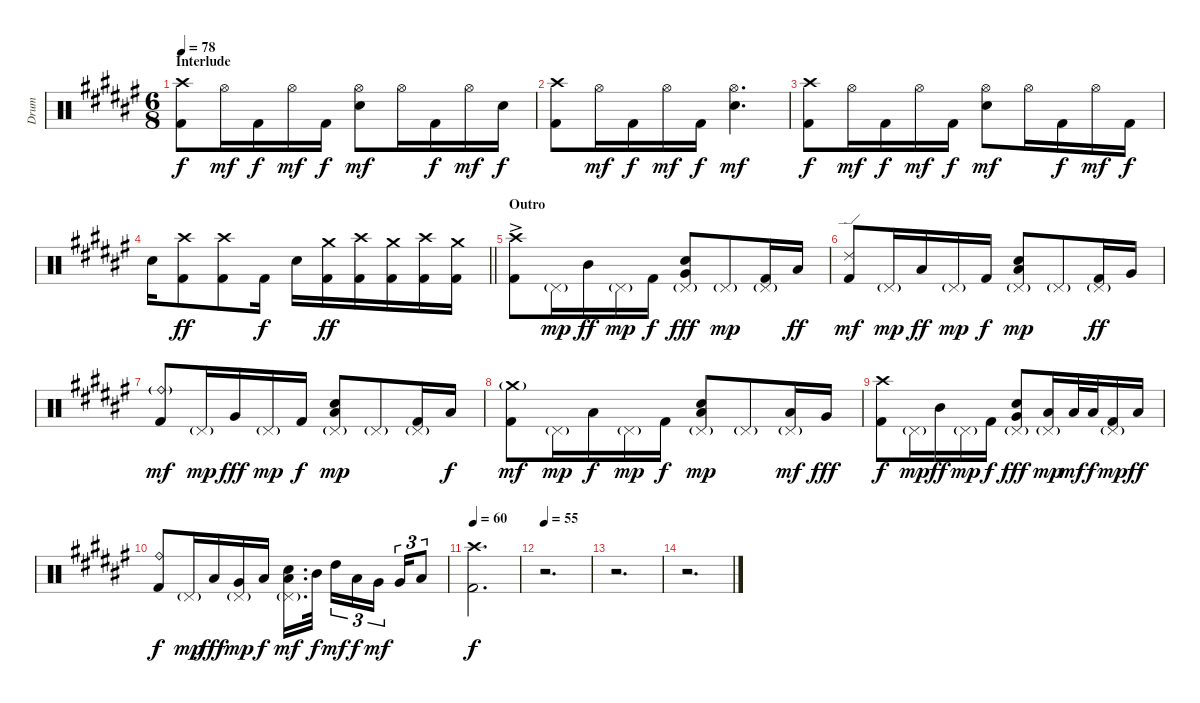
\track ("Drum" "Drum") {instrument percussion}
\staff {score}
\articulation defaults
\ts (6 8)
\section ("" "Interlude")
\tempo 78
\clef neutral
\ks d#minor
("Crash high (hit)" "Kick (hit) 2").8{dy f} "Hi-Hat (open)".16{dy mf} "Kick (hit) 2".16{dy f} "Hi-Hat (open)".16{dy mf} "Kick (hit) 2".16{dy f} ("Hi-Hat (open)" "Electric Snare (hit)").8{dy mf} "Hi-Hat (open)".16 "Kick (hit) 2".16{dy f} "Hi-Hat (open)".16{dy mf} "Electric Snare (hit)".16{dy f} |
("Crash high (hit)" "Kick (hit) 2").8 "Hi-Hat (open)".16{dy mf} "Kick (hit) 2".16{dy f} "Hi-Hat (open)".16{dy mf} "Kick (hit) 2".16{dy f} ("Hi-Hat (open)" "Electric Snare (hit)").4{d dy mf} |
("Crash high (hit)" "Kick (hit) 2").8{dy f} "Hi-Hat (open)".16{dy mf} "Kick (hit) 2".16{dy f} "Hi-Hat (open)".16{dy mf} "Kick (hit) 2".16{dy f} ("Hi-Hat (open)" "Electric Snare (hit)").8{dy mf} "Hi-Hat (open)".16 "Kick (hit) 2".16{dy f} "Hi-Hat (open)".16{dy mf} "Kick (hit) 2".16{dy f} |
\barLineRight lightlight "Electric Snare (hit)".16
("Crash high (hit)" "Kick (hit) 2").8{dy ff} ("Crash high (hit)" "Kick (hit) 2").8 "Kick (hit) 2".16{dy f} "Electric Snare (hit)".16 ("Crash medium (hit)" "Kick (hit) 2").16{dy ff} ("Crash high (hit)" "Kick (hit) 2").16 ("Crash medium (hit)" "Kick (hit) 2").16 ("Crash high (hit)" "Kick (hit) 2").16 ("Crash medium (hit)" "Kick (hit) 2").16 |
\section ("" "Outro")
("Crash high (hit)"{ac} "Kick (hit) 2").8 "Pedal Hi-Hat (hit)"{g}.16{dy mp} "Mid Tom (hit)".16{dy ff} "Pedal Hi-Hat (hit)"{g}.16{dy mp} "Kick (hit) 2".16{dy f} ("Pedal Hi-Hat (hit)"{g} "Very Low Tom (hit)" "Electric Snare (hit)").8{dy fff} "Pedal Hi-Hat (hit)"{g}.8{dy mp} ("Pedal Hi-Hat (hit)"{g} "Kick (hit) 2").16 "Low Tom (hit)".16{dy ff} |
("Ride (edge) 2" "Kick (hit) 2").8{dy mf} "Pedal Hi-Hat (hit)"{g}.16{dy mp} "Low Tom (hit)".16{dy ff} "Pedal Hi-Hat (hit)"{g}.16{dy mp} "Kick (hit) 2".16{dy f} ("Pedal Hi-Hat (hit)"{g} "Low Floor Tom (hit)" "Electric Snare (hit)").8{dy mp} "Pedal Hi-Hat (hit)"{g}.8 ("Pedal Hi-Hat (hit)"{g} "Kick (hit) 2").16{dy ff} "Very Low Tom (hit)".16 |
("Ride (bell)"{g} "Kick (hit) 2").8{dy mf} "Pedal Hi-Hat (hit)"{g}.16{dy mp} "Very Low Tom (hit)".16{dy fff} "Pedal Hi-Hat (hit)"{g}.16{dy mp} "Kick (hit) 2".16{dy f} ("Pedal Hi-Hat (hit)"{g} "Low Floor Tom (hit)" "Electric Snare (hit)").8{dy mp} "Pedal Hi-Hat (hit)"{g}.8 ("Pedal Hi-Hat (hit)"{g} "Kick (hit) 2").16 "Low Floor Tom (hit)".16{dy f} |
("Crash medium (hit)"{g} "Kick (hit) 2").8{dy mf} "Pedal Hi-Hat (hit)"{g}.16{dy mp} "Low Tom (hit)".16{dy f} "Pedal Hi-Hat (hit)"{g}.16{dy mp} "Kick (hit) 2".16{dy f} ("Pedal Hi-Hat (hit)"{g} "Low Floor Tom (hit)" "Electric Snare (hit)").8{dy mp} "Pedal Hi-Hat (hit)"{g}.8 ("Pedal Hi-Hat (hit)"{g} "Low Floor Tom (hit)").16{dy mf} "Very Low Tom (hit)".16{dy fff} |
("Crash high (hit)" "Kick (hit) 2").8{dy f} "Pedal Hi-Hat (hit)"{g}.16{dy mp} "Mid Tom (hit)".16{dy ff} "Pedal Hi-Hat (hit)"{g}.16{dy mp} "Kick (hit) 2".16{dy f} ("Pedal Hi-Hat (hit)"{g} "Very Low Tom (hit)" "Electric Snare (hit)").8{dy fff} ("Pedal Hi-Hat (hit)"{g} "Low Floor Tom (hit)").16{dy mp} "Low Floor Tom (hit)".32{dy mf} "Low Floor Tom (hit)".32{dy f} ("Pedal Hi-Hat (hit)"{g} "Kick (hit) 2").16{dy mp} "Low Tom (hit)".16{dy ff} |
("Ride (bell)" "Kick (hit) 2").8{dy f} "Pedal Hi-Hat (hit)"{g}.16{dy mp} "Low Tom (hit)".16{dy fff} ("Pedal Hi-Hat (hit)"{g} "Very Low Tom (hit)").16{dy mp} "Low Floor Tom (hit)".16{dy f} ("Pedal Hi-Hat (hit)"{g} "Low Floor Tom (hit)" "Electric Snare (hit)").16{d dy mf} "Mid Tom (hit)".32{dy f beam splitsecondary} "High Tom (hit)".16{tu (3 2) dy mf} "Low Tom (hit)".16{tu (3 2) dy f} "Very Low Tom (hit)".16{tu (3 2) dy mf beam splitsecondary} "Very Low Tom (hit)".16{tu (3 2)} "Low Floor Tom (hit)".8{tu (3 2)} |
\tempo 60
("Crash high (hit)" "Kick (hit) 2").2{d dy f} |
\tempo 55
r.2{d} |
r.2{d} |
r.2{d}
